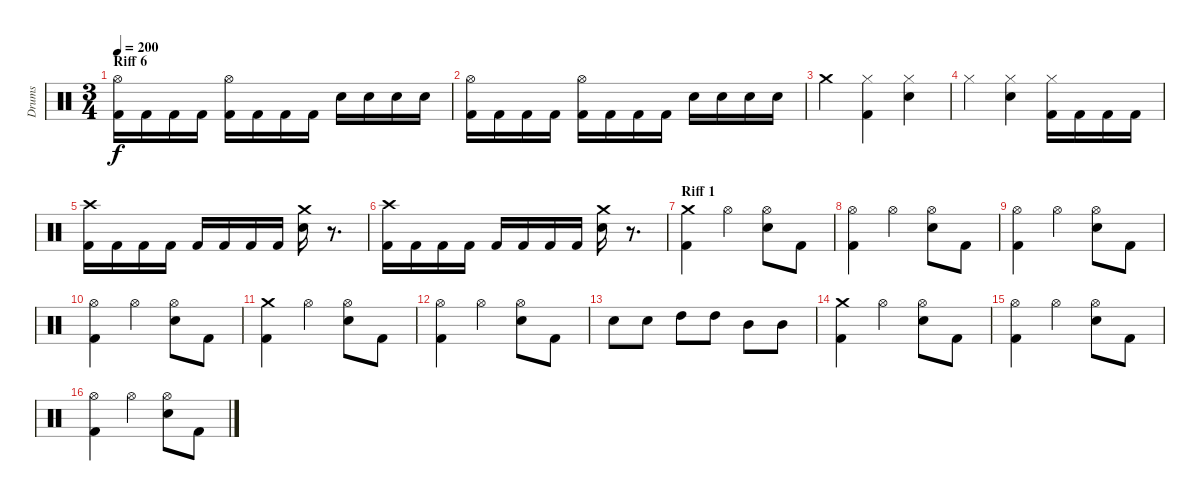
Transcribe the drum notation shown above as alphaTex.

\track ("Drums" "Drums") {instrument percussion}
\staff {score}
\articulation defaults
\ts (3 4)
\section ("" "Riff 6")
\tempo 200
\clef neutral
\ks c
("Hi-Hat (open)" "Kick (hit) 2").16{dy f} "Kick (hit) 2".16 "Kick (hit) 2".16 "Kick (hit) 2".16 ("Hi-Hat (open)" "Kick (hit) 2").16 "Kick (hit) 2".16 "Kick (hit) 2".16 "Kick (hit) 2".16 "Electric Snare (hit)".16 "Electric Snare (hit)".16 "Electric Snare (hit)".16 "Electric Snare (hit)".16 |
("Hi-Hat (open)" "Kick (hit) 2").16 "Kick (hit) 2".16 "Kick (hit) 2".16 "Kick (hit) 2".16 ("Hi-Hat (open)" "Kick (hit) 2").16 "Kick (hit) 2".16 "Kick (hit) 2".16 "Kick (hit) 2".16 "Electric Snare (hit)".16 "Electric Snare (hit)".16 "Electric Snare (hit)".16 "Electric Snare (hit)".16 |
"Crash medium (hit)".4 ("Hi-Hat (closed)" "Kick (hit) 2").4 ("Hi-Hat (closed)" "Electric Snare (hit)").4 |
"Hi-Hat (closed)".4 ("Hi-Hat (closed)" "Electric Snare (hit)").4 ("Hi-Hat (closed)" "Kick (hit) 2").16 "Kick (hit) 2".16 "Kick (hit) 2".16 "Kick (hit) 2".16 |
("Crash high (hit)" "Kick (hit) 2").16 "Kick (hit) 2".16 "Kick (hit) 2".16 "Kick (hit) 2".16 "Kick (hit) 2".16 "Kick (hit) 2".16 "Kick (hit) 2".16 "Kick (hit) 2".16 ("Crash medium (hit)" "Electric Snare (hit)").16 r.8{d} |
("Crash high (hit)" "Kick (hit) 2").16 "Kick (hit) 2".16 "Kick (hit) 2".16 "Kick (hit) 2".16 "Kick (hit) 2".16 "Kick (hit) 2".16 "Kick (hit) 2".16 "Kick (hit) 2".16 ("Crash medium (hit)" "Electric Snare (hit)").16 r.8{d} |
\section ("" "Riff 1")
("Crash medium (hit)" "Kick (hit) 2").4 "Hi-Hat (open)".4 ("Hi-Hat (open)" "Electric Snare (hit)").8 "Kick (hit) 2".8 |
("Hi-Hat (open)" "Kick (hit) 2").4 "Hi-Hat (open)".4 ("Hi-Hat (open)" "Electric Snare (hit)").8 "Kick (hit) 2".8 |
("Hi-Hat (open)" "Kick (hit) 2").4 "Hi-Hat (open)".4 ("Hi-Hat (open)" "Electric Snare (hit)").8 "Kick (hit) 2".8 |
("Hi-Hat (open)" "Kick (hit) 2").4 "Hi-Hat (open)".4 ("Hi-Hat (open)" "Electric Snare (hit)").8 "Kick (hit) 2".8 |
("Crash medium (hit)" "Kick (hit) 2").4 "Hi-Hat (open)".4 ("Hi-Hat (open)" "Electric Snare (hit)").8 "Kick (hit) 2".8 |
("Hi-Hat (open)" "Kick (hit) 2").4 "Hi-Hat (open)".4 ("Hi-Hat (open)" "Electric Snare (hit)").8 "Kick (hit) 2".8 |
"Electric Snare (hit)".8 "Electric Snare (hit)".8 "High Tom (hit)".8 "High Tom (hit)".8 "Mid Tom (hit)".8 "Mid Tom (hit)".8 |
("Crash medium (hit)" "Kick (hit) 2").4 "Hi-Hat (open)".4 ("Hi-Hat (open)" "Electric Snare (hit)").8 "Kick (hit) 2".8 |
("Hi-Hat (open)" "Kick (hit) 2").4 "Hi-Hat (open)".4 ("Hi-Hat (open)" "Electric Snare (hit)").8 "Kick (hit) 2".8 |
("Hi-Hat (open)" "Kick (hit) 2").4 "Hi-Hat (open)".4 ("Hi-Hat (open)" "Electric Snare (hit)").8 "Kick (hit) 2".8
